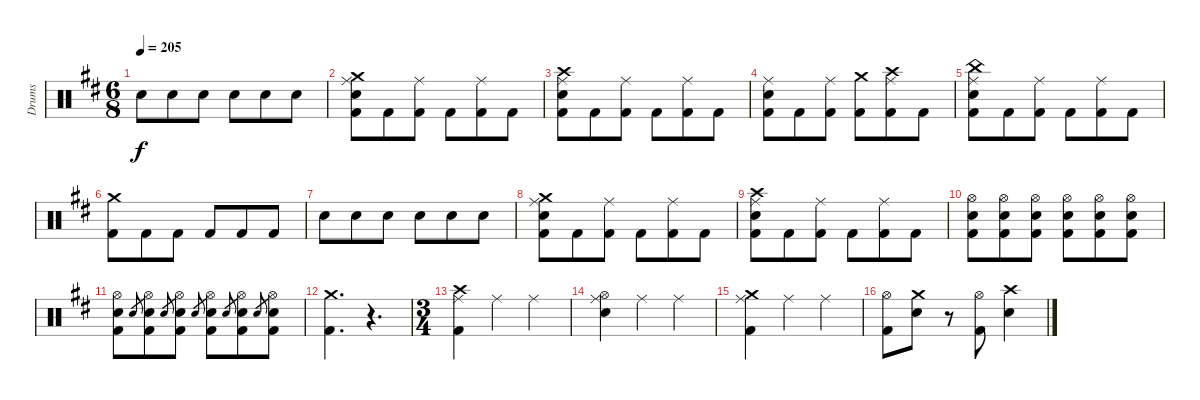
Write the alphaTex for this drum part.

\track ("Drums" "Drums") {instrument percussion}
\staff {score}
\articulation defaults
\ts (6 8)
\tempo 205
\clef neutral
\ks d "Electric Snare (hit)".8{dy f} "Electric Snare (hit)".8 "Electric Snare (hit)".8 "Electric Snare (hit)".8 "Electric Snare (hit)".8 "Electric Snare (hit)".8
|
("Crash medium (hit)" "Ride (middle)" "Electric Snare (hit)" "Kick (hit) 2").8 "Kick (hit) 2".8 ("Ride (middle)" "Kick (hit) 2").8 "Kick (hit) 2".8 ("Ride (middle)" "Kick (hit) 2").8 "Kick (hit) 2".8 |
("Crash high (hit)" "Ride (middle)" "Electric Snare (hit)" "Kick (hit) 2").8 "Kick (hit) 2".8 ("Ride (middle)" "Kick (hit) 2").8 "Kick (hit) 2".8 ("Ride (middle)" "Kick (hit) 2").8 "Kick (hit) 2".8 |
("Ride (middle)" "Electric Snare (hit)" "Kick (hit) 2").8 "Kick (hit) 2".8 ("Ride (middle)" "Kick (hit) 2").8 ("Crash medium (hit)" "Kick (hit) 2").8 ("Crash high (hit)" "Ride (middle)" "Kick (hit) 2").8 "Kick (hit) 2".8 |
("China (hit)" "Ride (middle)" "Electric Snare (hit)" "Kick (hit) 2").8 "Kick (hit) 2".8 ("Ride (middle)" "Kick (hit) 2").8 "Kick (hit) 2".8 ("Ride (middle)" "Kick (hit) 2").8 "Kick (hit) 2".8 |
("Crash medium (hit)" "Kick (hit) 2").8 "Kick (hit) 2".8 "Kick (hit) 2".8 "Kick (hit) 2".8 "Kick (hit) 2".8 "Kick (hit) 2".8 |
"Electric Snare (hit)".8 "Electric Snare (hit)".8 "Electric Snare (hit)".8 "Electric Snare (hit)".8 "Electric Snare (hit)".8 "Electric Snare (hit)".8 |
("Crash medium (hit)" "Ride (middle)" "Electric Snare (hit)" "Kick (hit) 2").8 "Kick (hit) 2".8 ("Ride (middle)" "Kick (hit) 2").8 "Kick (hit) 2".8 ("Ride (middle)" "Kick (hit) 2").8 "Kick (hit) 2".8 |
("Crash high (hit)" "Ride (middle)" "Electric Snare (hit)" "Kick (hit) 2").8 "Kick (hit) 2".8 ("Ride (middle)" "Kick (hit) 2").8 "Kick (hit) 2".8 ("Ride (middle)" "Kick (hit) 2").8 "Kick (hit) 2".8 |
("Hi-Hat (open)" "Electric Snare (hit)" "Kick (hit) 2").8 ("Hi-Hat (open)" "Electric Snare (hit)" "Kick (hit) 2").8 ("Hi-Hat (open)" "Electric Snare (hit)" "Kick (hit) 2").8 ("Hi-Hat (open)" "Electric Snare (hit)" "Kick (hit) 2").8 ("Hi-Hat (open)" "Electric Snare (hit)" "Kick (hit) 2").8 ("Hi-Hat (open)" "Electric Snare (hit)" "Kick (hit) 2").8 |
("Hi-Hat (open)" "Electric Snare (hit)" "Kick (hit) 2").8 "Electric Snare (hit)".8{gr} ("Hi-Hat (open)" "Electric Snare (hit)" "Kick (hit) 2").8 "Electric Snare (hit)".8{gr} ("Hi-Hat (open)" "Electric Snare (hit)" "Kick (hit) 2").8 "Electric Snare (hit)".8{gr} ("Hi-Hat (open)" "Electric Snare (hit)" "Kick (hit) 2").8 "Electric Snare (hit)".8{gr} ("Hi-Hat (open)" "Electric Snare (hit)" "Kick (hit) 2").8 "Electric Snare (hit)".8{gr} ("Hi-Hat (open)" "Electric Snare (hit)" "Kick (hit) 2").8 |
("Crash medium (hit)" "Kick (hit) 2").4{d} r.4{d} |
\ts (3 4)
("Crash high (hit)" "Ride (middle)" "Kick (hit) 2").4 "Ride (middle)".4 "Ride (middle)".4 |
("Hi-Hat (open)" "Ride (middle)" "Electric Snare (hit)").4 "Ride (middle)".4 "Ride (middle)".4 |
("Crash medium (hit)" "Ride (middle)" "Kick (hit) 2").4 "Ride (middle)".4 "Ride (middle)".4 |
("Hi-Hat (open)" "Kick (hit) 2").8 ("Crash medium (hit)" "Electric Snare (hit)").8 r.8 ("Hi-Hat (open)" "Kick (hit) 2").8 ("Crash high (hit)" "Electric Snare (hit)").4
